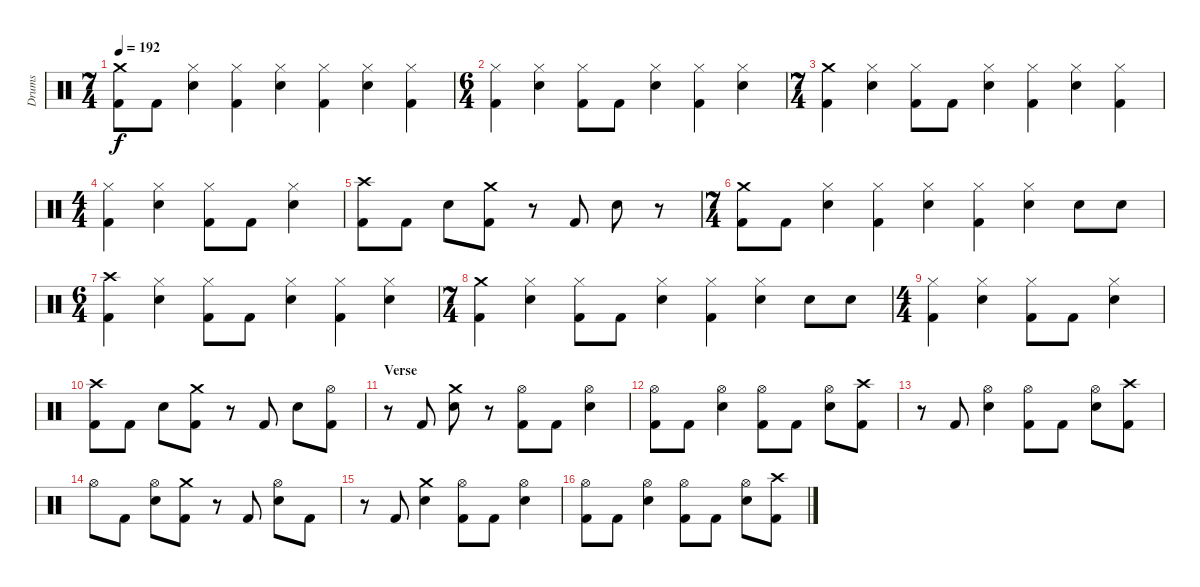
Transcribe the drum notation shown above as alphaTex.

\track ("Drums" "Drums") {instrument percussion}
\staff {score}
\articulation defaults
\ts (7 4)
\section ("" "")
\tempo 192
\clef neutral
\ks c
("Kick (hit) 2" "Crash medium (hit)").8{dy f} "Kick (hit) 2".8 ("Electric Snare (hit)" "Hi-Hat (closed)").4 ("Kick (hit) 2" "Hi-Hat (closed)").4 ("Electric Snare (hit)" "Hi-Hat (closed)").4 ("Kick (hit) 2" "Hi-Hat (closed)").4 ("Electric Snare (hit)" "Hi-Hat (closed)").4 ("Kick (hit) 2" "Hi-Hat (closed)").4 |
\ts (6 4)
("Kick (hit) 2" "Hi-Hat (closed)").4 ("Electric Snare (hit)" "Hi-Hat (closed)").4 ("Kick (hit) 2" "Hi-Hat (closed)").8 "Kick (hit) 2".8 ("Electric Snare (hit)" "Hi-Hat (closed)").4 ("Kick (hit) 2" "Hi-Hat (closed)").4 ("Electric Snare (hit)" "Hi-Hat (closed)").4 |
\ts (7 4)
("Kick (hit) 2" "Crash medium (hit)").4 ("Electric Snare (hit)" "Hi-Hat (closed)").4 ("Kick (hit) 2" "Hi-Hat (closed)").8 "Kick (hit) 2".8 ("Electric Snare (hit)" "Hi-Hat (closed)").4 ("Kick (hit) 2" "Hi-Hat (closed)").4 ("Electric Snare (hit)" "Hi-Hat (closed)").4 ("Kick (hit) 2" "Hi-Hat (closed)").4 |
\ts (4 4)
("Kick (hit) 2" "Hi-Hat (closed)").4 ("Electric Snare (hit)" "Hi-Hat (closed)").4 ("Kick (hit) 2" "Hi-Hat (closed)").8 "Kick (hit) 2".8 ("Electric Snare (hit)" "Hi-Hat (closed)").4 |
("Kick (hit) 2" "Crash high (hit)").8 "Kick (hit) 2".8 "Electric Snare (hit)".8 ("Kick (hit) 2" "Crash medium (hit)").8 r.8 "Kick (hit) 2".8 "Electric Snare (hit)".8 r.8 |
\ts (7 4)
("Kick (hit) 2" "Crash medium (hit)").8 "Kick (hit) 2".8 ("Electric Snare (hit)" "Hi-Hat (closed)").4 ("Kick (hit) 2" "Hi-Hat (closed)").4 ("Electric Snare (hit)" "Hi-Hat (closed)").4 ("Kick (hit) 2" "Hi-Hat (closed)").4 ("Electric Snare (hit)" "Hi-Hat (closed)").4 "Electric Snare (hit)".8 "Electric Snare (hit)".8 |
\ts (6 4)
("Kick (hit) 2" "Crash high (hit)").4 ("Electric Snare (hit)" "Hi-Hat (closed)").4 ("Kick (hit) 2" "Hi-Hat (closed)").8 "Kick (hit) 2".8 ("Electric Snare (hit)" "Hi-Hat (closed)").4 ("Kick (hit) 2" "Hi-Hat (closed)").4 ("Electric Snare (hit)" "Hi-Hat (closed)").4 |
\ts (7 4)
("Kick (hit) 2" "Crash medium (hit)").4 ("Electric Snare (hit)" "Hi-Hat (closed)").4 ("Kick (hit) 2" "Hi-Hat (closed)").8 "Kick (hit) 2".8 ("Electric Snare (hit)" "Hi-Hat (closed)").4 ("Kick (hit) 2" "Hi-Hat (closed)").4 ("Electric Snare (hit)" "Hi-Hat (closed)").4 "Electric Snare (hit)".8 "Electric Snare (hit)".8 |
\ts (4 4)
("Kick (hit) 2" "Hi-Hat (closed)").4 ("Electric Snare (hit)" "Hi-Hat (closed)").4 ("Kick (hit) 2" "Hi-Hat (closed)").8 "Kick (hit) 2".8 ("Electric Snare (hit)" "Hi-Hat (closed)").4 |
("Kick (hit) 2" "Crash high (hit)").8 "Kick (hit) 2".8 "Electric Snare (hit)".8 ("Kick (hit) 2" "Crash medium (hit)").8 r.8 "Kick (hit) 2".8 "Electric Snare (hit)".8 ("Kick (hit) 2" "Hi-Hat (open)").8 |
\section ("" "Verse")
r.8 "Kick (hit) 2".8 ("Electric Snare (hit)" "Crash medium (hit)").8 r.8 ("Kick (hit) 2" "Hi-Hat (open)").8 "Kick (hit) 2".8 ("Electric Snare (hit)" "Hi-Hat (open)").4 |
("Kick (hit) 2" "Hi-Hat (open)").8 "Kick (hit) 2".8 ("Electric Snare (hit)" "Hi-Hat (open)").4 ("Kick (hit) 2" "Hi-Hat (open)").8 "Kick (hit) 2".8 ("Electric Snare (hit)" "Hi-Hat (open)").8 ("Kick (hit) 2" "Crash high (hit)").8 |
r.8 "Kick (hit) 2".8 ("Electric Snare (hit)" "Hi-Hat (open)").4 ("Kick (hit) 2" "Hi-Hat (open)").8 "Kick (hit) 2".8 ("Electric Snare (hit)" "Hi-Hat (open)").8 ("Kick (hit) 2" "Crash high (hit)").8 |
"Hi-Hat (open)".8 "Kick (hit) 2".8 ("Electric Snare (hit)" "Hi-Hat (open)").8 ("Kick (hit) 2" "Crash medium (hit)").8 r.8 "Kick (hit) 2".8 ("Electric Snare (hit)" "Hi-Hat (open)").8 "Kick (hit) 2".8 |
r.8 "Kick (hit) 2".8 ("Electric Snare (hit)" "Crash medium (hit)").4 ("Kick (hit) 2" "Hi-Hat (open)").8 "Kick (hit) 2".8 ("Electric Snare (hit)" "Hi-Hat (open)").4 |
("Kick (hit) 2" "Hi-Hat (open)").8 "Kick (hit) 2".8 ("Electric Snare (hit)" "Hi-Hat (open)").4 ("Kick (hit) 2" "Hi-Hat (open)").8 "Kick (hit) 2".8 ("Electric Snare (hit)" "Hi-Hat (open)").8 ("Kick (hit) 2" "Crash high (hit)").8
